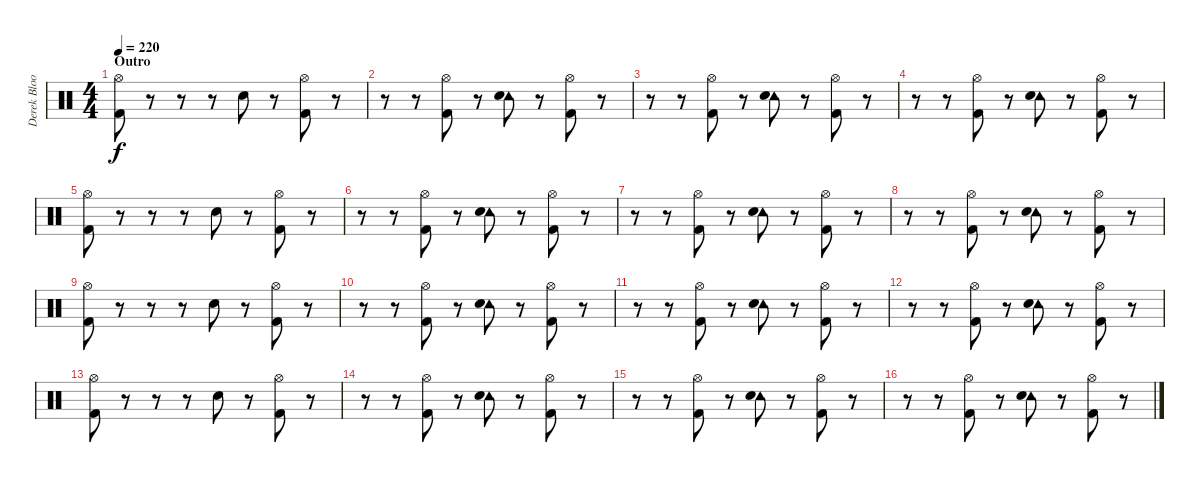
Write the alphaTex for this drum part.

\track ("Derek Bloom - Drums" "Derek Bloo") {instrument percussion}
\staff {score}
\articulation defaults
\ts (4 4)
\section ("" "Outro")
\tempo 220
\clef neutral
\ks c
("Hi-Hat (open)" "Kick (hit) 2").8{dy f} r.8 r.8 r.8 "Electric Snare (hit)".8 r.8 ("Hi-Hat (open)" "Kick (hit) 2").8 r.8 |
r.8 r.8 ("Hi-Hat (open)" "Kick (hit) 2").8 r.8 ("Tambourine (hit)" "Electric Snare (hit)").8 r.8 ("Hi-Hat (open)" "Kick (hit) 2").8 r.8 |
r.8 r.8 ("Hi-Hat (open)" "Kick (hit) 2").8 r.8 ("Tambourine (hit)" "Electric Snare (hit)").8 r.8 ("Hi-Hat (open)" "Kick (hit) 2").8 r.8 |
r.8 r.8 ("Hi-Hat (open)" "Kick (hit) 2").8 r.8 ("Tambourine (hit)" "Electric Snare (hit)").8 r.8 ("Hi-Hat (open)" "Kick (hit) 2").8 r.8 |
("Hi-Hat (open)" "Kick (hit) 2").8 r.8 r.8 r.8 "Electric Snare (hit)".8 r.8 ("Hi-Hat (open)" "Kick (hit) 2").8 r.8 |
r.8 r.8 ("Hi-Hat (open)" "Kick (hit) 2").8 r.8 ("Tambourine (hit)" "Electric Snare (hit)").8 r.8 ("Hi-Hat (open)" "Kick (hit) 2").8 r.8 |
r.8 r.8 ("Hi-Hat (open)" "Kick (hit) 2").8 r.8 ("Tambourine (hit)" "Electric Snare (hit)").8 r.8 ("Hi-Hat (open)" "Kick (hit) 2").8 r.8 |
r.8 r.8 ("Hi-Hat (open)" "Kick (hit) 2").8 r.8 ("Tambourine (hit)" "Electric Snare (hit)").8 r.8 ("Hi-Hat (open)" "Kick (hit) 2").8 r.8 |
("Hi-Hat (open)" "Kick (hit) 2").8 r.8 r.8 r.8 "Electric Snare (hit)".8 r.8 ("Hi-Hat (open)" "Kick (hit) 2").8 r.8 |
r.8 r.8 ("Hi-Hat (open)" "Kick (hit) 2").8 r.8 ("Tambourine (hit)" "Electric Snare (hit)").8 r.8 ("Hi-Hat (open)" "Kick (hit) 2").8 r.8 |
r.8 r.8 ("Hi-Hat (open)" "Kick (hit) 2").8 r.8 ("Tambourine (hit)" "Electric Snare (hit)").8 r.8 ("Hi-Hat (open)" "Kick (hit) 2").8 r.8 |
r.8 r.8 ("Hi-Hat (open)" "Kick (hit) 2").8 r.8 ("Tambourine (hit)" "Electric Snare (hit)").8 r.8 ("Hi-Hat (open)" "Kick (hit) 2").8 r.8 |
("Hi-Hat (open)" "Kick (hit) 2").8 r.8 r.8 r.8 "Electric Snare (hit)".8 r.8 ("Hi-Hat (open)" "Kick (hit) 2").8 r.8 |
r.8 r.8 ("Hi-Hat (open)" "Kick (hit) 2").8 r.8 ("Tambourine (hit)" "Electric Snare (hit)").8 r.8 ("Hi-Hat (open)" "Kick (hit) 2").8 r.8 |
r.8 r.8 ("Hi-Hat (open)" "Kick (hit) 2").8 r.8 ("Tambourine (hit)" "Electric Snare (hit)").8 r.8 ("Hi-Hat (open)" "Kick (hit) 2").8 r.8 |
r.8 r.8 ("Hi-Hat (open)" "Kick (hit) 2").8 r.8 ("Tambourine (hit)" "Electric Snare (hit)").8 r.8 ("Hi-Hat (open)" "Kick (hit) 2").8 r.8
